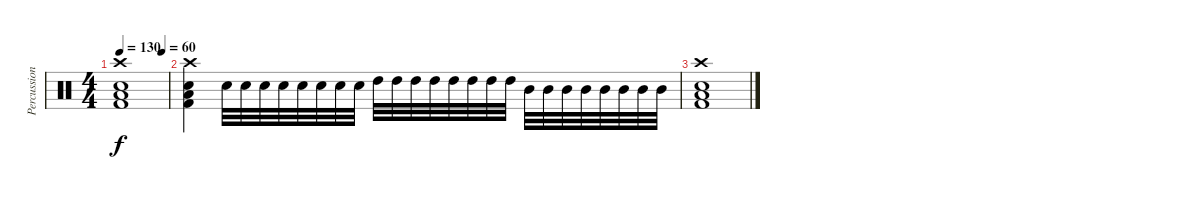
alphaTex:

\track ("Percussion" "Percussion") {instrument percussion}
\staff {score}
\articulation defaults
\ts (4 4)
\tempo 130
\tempo (60 0.875)
\clef neutral
\ks c
("Crash high (hit)" "Snare (hit) 2" "Kick (hit) 2" "Low Floor Tom (hit)").1{dy f} |
("Crash high (hit)" "Snare (hit) 2" "Kick (hit) 2" "Low Floor Tom (hit)").4 "Electric Snare (hit)".32 "Electric Snare (hit)".32 "Electric Snare (hit)".32 "Electric Snare (hit)".32 "Electric Snare (hit)".32 "Electric Snare (hit)".32 "Electric Snare (hit)".32 "Electric Snare (hit)".32 "High Tom (hit)".32 "High Tom (hit)".32 "High Tom (hit)".32 "High Tom (hit)".32 "High Tom (hit)".32 "High Tom (hit)".32 "High Tom (hit)".32 "High Tom (hit)".32 "Mid Tom (hit)".32 "Mid Tom (hit)".32 "Mid Tom (hit)".32 "Mid Tom (hit)".32 "Mid Tom (hit)".32 "Mid Tom (hit)".32 "Mid Tom (hit)".32 "Mid Tom (hit)".32 |
("Crash high (hit)" "Snare (hit) 2" "Kick (hit) 2" "Low Floor Tom (hit)").1
